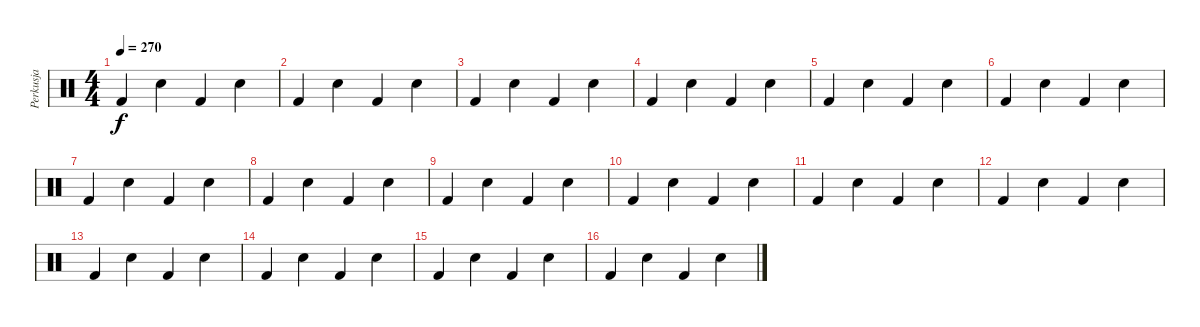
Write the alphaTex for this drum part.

\track ("Perkusja" "Perkusja") {instrument percussion}
\staff {score}
\articulation defaults
\ts (4 4)
\tempo 270
\clef neutral
\ks c "Kick (hit) 2".4{dy f} "Electric Snare (hit)".4 "Kick (hit) 2".4 "Electric Snare (hit)".4
|
"Kick (hit) 2".4 "Electric Snare (hit)".4 "Kick (hit) 2".4 "Electric Snare (hit)".4 |
"Kick (hit) 2".4 "Electric Snare (hit)".4 "Kick (hit) 2".4 "Electric Snare (hit)".4 |
"Kick (hit) 2".4 "Electric Snare (hit)".4 "Kick (hit) 2".4 "Electric Snare (hit)".4 |
"Kick (hit) 2".4 "Electric Snare (hit)".4 "Kick (hit) 2".4 "Electric Snare (hit)".4 |
"Kick (hit) 2".4 "Electric Snare (hit)".4 "Kick (hit) 2".4 "Electric Snare (hit)".4 |
"Kick (hit) 2".4 "Electric Snare (hit)".4 "Kick (hit) 2".4 "Electric Snare (hit)".4 |
"Kick (hit) 2".4 "Electric Snare (hit)".4 "Kick (hit) 2".4 "Electric Snare (hit)".4 |
"Kick (hit) 2".4 "Electric Snare (hit)".4 "Kick (hit) 2".4 "Electric Snare (hit)".4 |
"Kick (hit) 2".4 "Electric Snare (hit)".4 "Kick (hit) 2".4 "Electric Snare (hit)".4 |
"Kick (hit) 2".4 "Electric Snare (hit)".4 "Kick (hit) 2".4 "Electric Snare (hit)".4 |
"Kick (hit) 2".4 "Electric Snare (hit)".4 "Kick (hit) 2".4 "Electric Snare (hit)".4 |
"Kick (hit) 2".4 "Electric Snare (hit)".4 "Kick (hit) 2".4 "Electric Snare (hit)".4 |
"Kick (hit) 2".4 "Electric Snare (hit)".4 "Kick (hit) 2".4 "Electric Snare (hit)".4 |
"Kick (hit) 2".4 "Electric Snare (hit)".4 "Kick (hit) 2".4 "Electric Snare (hit)".4 |
"Kick (hit) 2".4 "Electric Snare (hit)".4 "Kick (hit) 2".4 "Electric Snare (hit)".4
